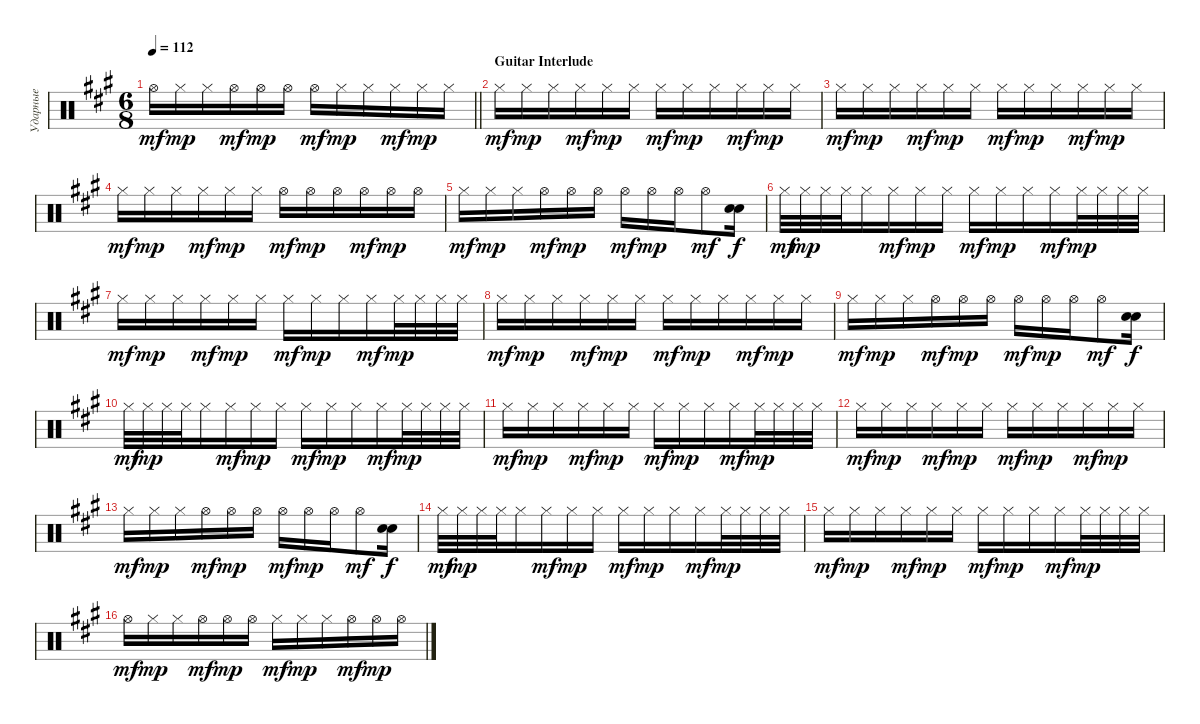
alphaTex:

\track ("Ударные" "Ударные") {instrument percussion}
\staff {score}
\articulation defaults
\ts (6 8)
\tempo 112
\clef neutral
\barLineRight lightlight
\ks f#minor "Hi-Hat (open)".16{dy mf} "Hi-Hat (closed)".16{dy mp} "Hi-Hat (closed)".16 "Hi-Hat (open)".16{dy mf} "Hi-Hat (open)".16{dy mp} "Hi-Hat (open)".16 "Hi-Hat (open)".16{dy mf} "Hi-Hat (closed)".16{dy mp} "Hi-Hat (closed)".16 "Hi-Hat (closed)".16{dy mf} "Hi-Hat (closed)".16{dy mp} "Hi-Hat (closed)".16
|
\section ("" "Guitar Interlude")
"Hi-Hat (closed)".16{dy mf} "Hi-Hat (closed)".16{dy mp} "Hi-Hat (closed)".16 "Hi-Hat (closed)".16{dy mf} "Hi-Hat (closed)".16{dy mp} "Hi-Hat (closed)".16 "Hi-Hat (closed)".16{dy mf} "Hi-Hat (closed)".16{dy mp} "Hi-Hat (closed)".16 "Hi-Hat (closed)".16{dy mf} "Hi-Hat (closed)".16{dy mp} "Hi-Hat (closed)".16 |
"Hi-Hat (closed)".16{dy mf} "Hi-Hat (closed)".16{dy mp} "Hi-Hat (closed)".16 "Hi-Hat (closed)".16{dy mf} "Hi-Hat (closed)".16{dy mp} "Hi-Hat (closed)".16 "Hi-Hat (closed)".16{dy mf} "Hi-Hat (closed)".16{dy mp} "Hi-Hat (closed)".16 "Hi-Hat (closed)".16{dy mf} "Hi-Hat (closed)".16{dy mp} "Hi-Hat (closed)".16 |
"Hi-Hat (closed)".16{dy mf} "Hi-Hat (closed)".16{dy mp} "Hi-Hat (closed)".16 "Hi-Hat (closed)".16{dy mf} "Hi-Hat (closed)".16{dy mp} "Hi-Hat (closed)".16 "Hi-Hat (open)".16{dy mf} "Hi-Hat (open)".16{dy mp} "Hi-Hat (open)".16 "Hi-Hat (open)".16{dy mf} "Hi-Hat (open)".16{dy mp} "Hi-Hat (open)".16 |
"Hi-Hat (closed)".16{dy mf} "Hi-Hat (closed)".16{dy mp} "Hi-Hat (closed)".16 "Hi-Hat (open)".16{dy mf} "Hi-Hat (open)".16{dy mp} "Hi-Hat (open)".16 "Hi-Hat (open)".16{dy mf} "Hi-Hat (open)".16{dy mp} "Hi-Hat (open)".16 "Hi-Hat (open)".8{dy mf} ("Snare (hit) 2" "Snare (hit) 2").16{bd 240 dy f} |
"Hi-Hat (closed)".32{dy mf} "Hi-Hat (closed)".32{dy mp} "Hi-Hat (closed)".32 "Hi-Hat (closed)".32 "Hi-Hat (closed)".16 "Hi-Hat (closed)".16{dy mf} "Hi-Hat (closed)".16{dy mp} "Hi-Hat (closed)".16 "Hi-Hat (closed)".16{dy mf} "Hi-Hat (closed)".16{dy mp} "Hi-Hat (closed)".16 "Hi-Hat (closed)".16{dy mf} "Hi-Hat (closed)".32{dy mp} "Hi-Hat (closed)".32 "Hi-Hat (closed)".32 "Hi-Hat (closed)".32 |
"Hi-Hat (closed)".16{dy mf} "Hi-Hat (closed)".16{dy mp} "Hi-Hat (closed)".16 "Hi-Hat (closed)".16{dy mf} "Hi-Hat (closed)".16{dy mp} "Hi-Hat (closed)".16 "Hi-Hat (closed)".16{dy mf} "Hi-Hat (closed)".16{dy mp} "Hi-Hat (closed)".16 "Hi-Hat (closed)".16{dy mf} "Hi-Hat (closed)".32{dy mp} "Hi-Hat (closed)".32 "Hi-Hat (closed)".32 "Hi-Hat (closed)".32 |
"Hi-Hat (closed)".16{dy mf} "Hi-Hat (closed)".16{dy mp} "Hi-Hat (closed)".16 "Hi-Hat (closed)".16{dy mf} "Hi-Hat (closed)".16{dy mp} "Hi-Hat (closed)".16 "Hi-Hat (closed)".16{dy mf} "Hi-Hat (closed)".16{dy mp} "Hi-Hat (closed)".16 "Hi-Hat (closed)".16{dy mf} "Hi-Hat (closed)".16{dy mp} "Hi-Hat (closed)".16 |
"Hi-Hat (closed)".16{dy mf} "Hi-Hat (closed)".16{dy mp} "Hi-Hat (closed)".16 "Hi-Hat (open)".16{dy mf} "Hi-Hat (open)".16{dy mp} "Hi-Hat (open)".16 "Hi-Hat (open)".16{dy mf} "Hi-Hat (open)".16{dy mp} "Hi-Hat (open)".16 "Hi-Hat (open)".8{dy mf} ("Snare (hit) 2" "Snare (hit) 2").16{bd 240 dy f} |
"Hi-Hat (closed)".32{dy mf} "Hi-Hat (closed)".32{dy mp} "Hi-Hat (closed)".32 "Hi-Hat (closed)".32 "Hi-Hat (closed)".16 "Hi-Hat (closed)".16{dy mf} "Hi-Hat (closed)".16{dy mp} "Hi-Hat (closed)".16 "Hi-Hat (closed)".16{dy mf} "Hi-Hat (closed)".16{dy mp} "Hi-Hat (closed)".16 "Hi-Hat (closed)".16{dy mf} "Hi-Hat (closed)".32{dy mp} "Hi-Hat (closed)".32 "Hi-Hat (closed)".32 "Hi-Hat (closed)".32 |
"Hi-Hat (closed)".16{dy mf} "Hi-Hat (closed)".16{dy mp} "Hi-Hat (closed)".16 "Hi-Hat (closed)".16{dy mf} "Hi-Hat (closed)".16{dy mp} "Hi-Hat (closed)".16 "Hi-Hat (closed)".16{dy mf} "Hi-Hat (closed)".16{dy mp} "Hi-Hat (closed)".16 "Hi-Hat (closed)".16{dy mf} "Hi-Hat (closed)".32{dy mp} "Hi-Hat (closed)".32 "Hi-Hat (closed)".32 "Hi-Hat (closed)".32 |
"Hi-Hat (closed)".16{dy mf} "Hi-Hat (closed)".16{dy mp} "Hi-Hat (closed)".16 "Hi-Hat (closed)".16{dy mf} "Hi-Hat (closed)".16{dy mp} "Hi-Hat (closed)".16 "Hi-Hat (closed)".16{dy mf} "Hi-Hat (closed)".16{dy mp} "Hi-Hat (closed)".16 "Hi-Hat (closed)".16{dy mf} "Hi-Hat (closed)".16{dy mp} "Hi-Hat (closed)".16 |
"Hi-Hat (closed)".16{dy mf} "Hi-Hat (closed)".16{dy mp} "Hi-Hat (closed)".16 "Hi-Hat (open)".16{dy mf} "Hi-Hat (open)".16{dy mp} "Hi-Hat (open)".16 "Hi-Hat (open)".16{dy mf} "Hi-Hat (open)".16{dy mp} "Hi-Hat (open)".16 "Hi-Hat (open)".8{dy mf} ("Snare (hit) 2" "Snare (hit) 2").16{bd 240 dy f} |
"Hi-Hat (closed)".32{dy mf} "Hi-Hat (closed)".32{dy mp} "Hi-Hat (closed)".32 "Hi-Hat (closed)".32 "Hi-Hat (closed)".16 "Hi-Hat (closed)".16{dy mf} "Hi-Hat (closed)".16{dy mp} "Hi-Hat (closed)".16 "Hi-Hat (closed)".16{dy mf} "Hi-Hat (closed)".16{dy mp} "Hi-Hat (closed)".16 "Hi-Hat (closed)".16{dy mf} "Hi-Hat (closed)".32{dy mp} "Hi-Hat (closed)".32 "Hi-Hat (closed)".32 "Hi-Hat (closed)".32 |
"Hi-Hat (closed)".16{dy mf} "Hi-Hat (closed)".16{dy mp} "Hi-Hat (closed)".16 "Hi-Hat (closed)".16{dy mf} "Hi-Hat (closed)".16{dy mp} "Hi-Hat (closed)".16 "Hi-Hat (closed)".16{dy mf} "Hi-Hat (closed)".16{dy mp} "Hi-Hat (closed)".16 "Hi-Hat (closed)".16{dy mf} "Hi-Hat (closed)".32{dy mp} "Hi-Hat (closed)".32 "Hi-Hat (closed)".32 "Hi-Hat (closed)".32 |
"Hi-Hat (open)".16{dy mf} "Hi-Hat (closed)".16{dy mp} "Hi-Hat (closed)".16 "Hi-Hat (open)".16{dy mf} "Hi-Hat (open)".16{dy mp} "Hi-Hat (open)".16 "Hi-Hat (closed)".16{dy mf} "Hi-Hat (closed)".16{dy mp} "Hi-Hat (closed)".16 "Hi-Hat (open)".16{dy mf} "Hi-Hat (open)".16{dy mp} "Hi-Hat (open)".16
